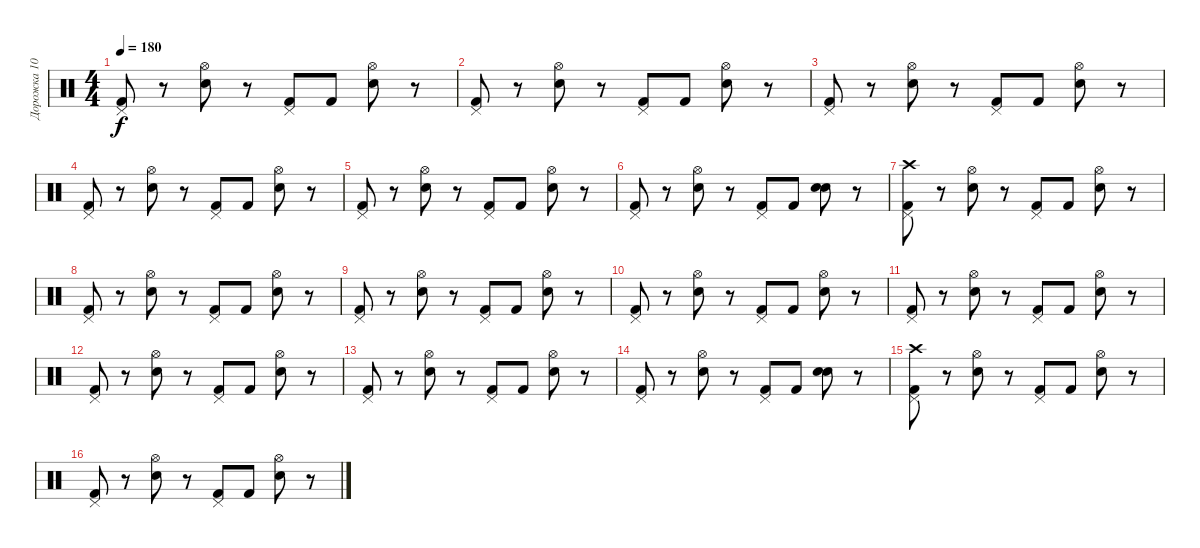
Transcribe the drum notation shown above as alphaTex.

\track ("Дорожка 10" "Дорожка 10") {instrument percussion}
\staff {score}
\articulation defaults
\ts (4 4)
\tempo 180
\clef neutral
\ks c
("Kick (hit) 2" "Pedal Hi-Hat (hit)").8{dy f} r.8 ("Snare (hit) 2" "Hi-Hat (open)").8 r.8 ("Kick (hit) 2" "Pedal Hi-Hat (hit)").8 "Kick (hit) 2".8 ("Snare (hit) 2" "Hi-Hat (open)").8 r.8 |
("Kick (hit) 2" "Pedal Hi-Hat (hit)").8 r.8 ("Snare (hit) 2" "Hi-Hat (open)").8 r.8 ("Kick (hit) 2" "Pedal Hi-Hat (hit)").8 "Kick (hit) 2".8 ("Snare (hit) 2" "Hi-Hat (open)").8 r.8 |
("Kick (hit) 2" "Pedal Hi-Hat (hit)").8 r.8 ("Snare (hit) 2" "Hi-Hat (open)").8 r.8 ("Kick (hit) 2" "Pedal Hi-Hat (hit)").8 "Kick (hit) 2".8 ("Snare (hit) 2" "Hi-Hat (open)").8 r.8 |
("Kick (hit) 2" "Pedal Hi-Hat (hit)").8 r.8 ("Snare (hit) 2" "Hi-Hat (open)").8 r.8 ("Kick (hit) 2" "Pedal Hi-Hat (hit)").8 "Kick (hit) 2".8 ("Snare (hit) 2" "Hi-Hat (open)").8 r.8 |
("Kick (hit) 2" "Pedal Hi-Hat (hit)").8 r.8 ("Snare (hit) 2" "Hi-Hat (open)").8 r.8 ("Kick (hit) 2" "Pedal Hi-Hat (hit)").8 "Kick (hit) 2".8 ("Snare (hit) 2" "Hi-Hat (open)").8 r.8 |
("Kick (hit) 2" "Pedal Hi-Hat (hit)").8 r.8 ("Snare (hit) 2" "Hi-Hat (open)").8 r.8 ("Kick (hit) 2" "Pedal Hi-Hat (hit)").8 "Kick (hit) 2".8 ("Snare (hit) 2" "Electric Snare (hit)").8 r.8 |
("Kick (hit) 2" "Crash high (hit)" "Pedal Hi-Hat (hit)").8 r.8 ("Snare (hit) 2" "Hi-Hat (open)").8 r.8 ("Kick (hit) 2" "Pedal Hi-Hat (hit)").8 "Kick (hit) 2".8 ("Snare (hit) 2" "Hi-Hat (open)").8 r.8 |
("Kick (hit) 2" "Pedal Hi-Hat (hit)").8 r.8 ("Snare (hit) 2" "Hi-Hat (open)").8 r.8 ("Kick (hit) 2" "Pedal Hi-Hat (hit)").8 "Kick (hit) 2".8 ("Snare (hit) 2" "Hi-Hat (open)").8 r.8 |
("Kick (hit) 2" "Pedal Hi-Hat (hit)").8 r.8 ("Snare (hit) 2" "Hi-Hat (open)").8 r.8 ("Kick (hit) 2" "Pedal Hi-Hat (hit)").8 "Kick (hit) 2".8 ("Snare (hit) 2" "Hi-Hat (open)").8 r.8 |
("Kick (hit) 2" "Pedal Hi-Hat (hit)").8 r.8 ("Snare (hit) 2" "Hi-Hat (open)").8 r.8 ("Kick (hit) 2" "Pedal Hi-Hat (hit)").8 "Kick (hit) 2".8 ("Snare (hit) 2" "Hi-Hat (open)").8 r.8 |
("Kick (hit) 2" "Pedal Hi-Hat (hit)").8 r.8 ("Snare (hit) 2" "Hi-Hat (open)").8 r.8 ("Kick (hit) 2" "Pedal Hi-Hat (hit)").8 "Kick (hit) 2".8 ("Snare (hit) 2" "Hi-Hat (open)").8 r.8 |
("Kick (hit) 2" "Pedal Hi-Hat (hit)").8 r.8 ("Snare (hit) 2" "Hi-Hat (open)").8 r.8 ("Kick (hit) 2" "Pedal Hi-Hat (hit)").8 "Kick (hit) 2".8 ("Snare (hit) 2" "Hi-Hat (open)").8 r.8 |
("Kick (hit) 2" "Pedal Hi-Hat (hit)").8 r.8 ("Snare (hit) 2" "Hi-Hat (open)").8 r.8 ("Kick (hit) 2" "Pedal Hi-Hat (hit)").8 "Kick (hit) 2".8 ("Snare (hit) 2" "Hi-Hat (open)").8 r.8 |
("Kick (hit) 2" "Pedal Hi-Hat (hit)").8 r.8 ("Snare (hit) 2" "Hi-Hat (open)").8 r.8 ("Kick (hit) 2" "Pedal Hi-Hat (hit)").8 "Kick (hit) 2".8 ("Snare (hit) 2" "Electric Snare (hit)").8 r.8 |
("Kick (hit) 2" "Crash high (hit)" "Pedal Hi-Hat (hit)").8 r.8 ("Snare (hit) 2" "Hi-Hat (open)").8 r.8 ("Kick (hit) 2" "Pedal Hi-Hat (hit)").8 "Kick (hit) 2".8 ("Snare (hit) 2" "Hi-Hat (open)").8 r.8 |
("Kick (hit) 2" "Pedal Hi-Hat (hit)").8 r.8 ("Snare (hit) 2" "Hi-Hat (open)").8 r.8 ("Kick (hit) 2" "Pedal Hi-Hat (hit)").8 "Kick (hit) 2".8 ("Snare (hit) 2" "Hi-Hat (open)").8 r.8
